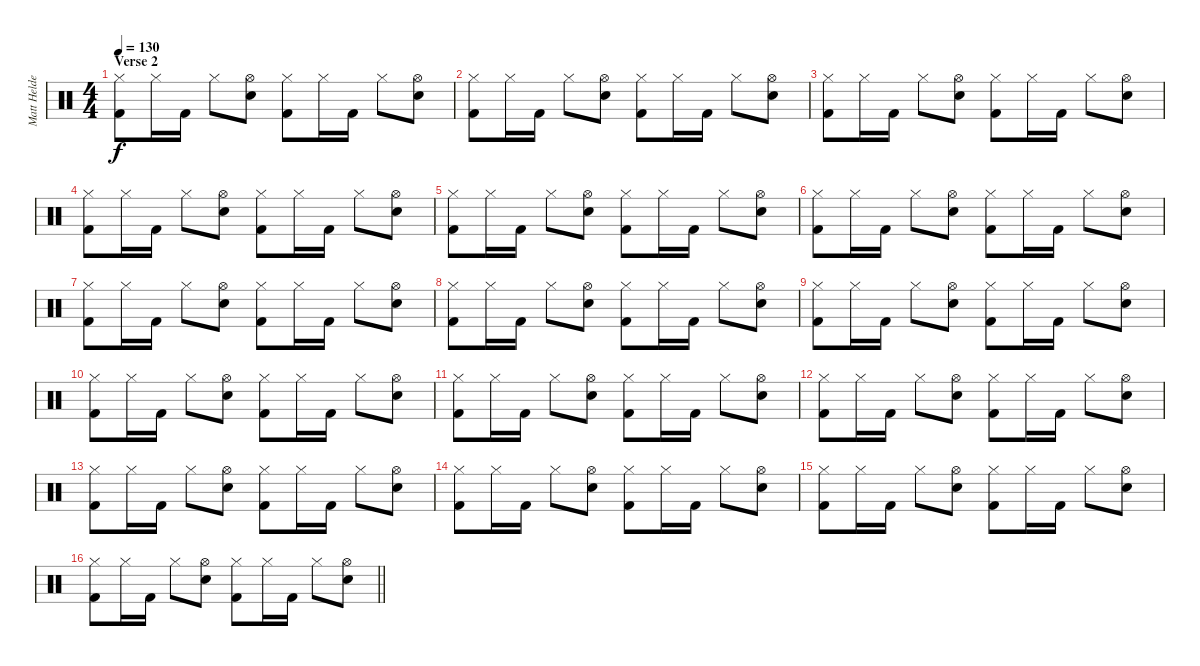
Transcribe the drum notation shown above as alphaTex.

\track ("Matt Helders" "Matt Helde") {instrument percussion}
\staff {score}
\articulation defaults
\ts (4 4)
\section ("" "Verse 2")
\tempo 130
\clef neutral
\ks c
("Hi-Hat (closed)" "Kick (hit) 2").8{dy f} "Hi-Hat (closed)".16 "Kick (hit) 2".16 "Hi-Hat (closed)".8 ("Hi-Hat (open)" "Snare (hit) 2").8 ("Hi-Hat (closed)" "Kick (hit) 2").8 "Hi-Hat (closed)".16 "Kick (hit) 2".16 "Hi-Hat (closed)".8 ("Hi-Hat (open)" "Snare (hit) 2").8 |
("Hi-Hat (closed)" "Kick (hit) 2").8 "Hi-Hat (closed)".16 "Kick (hit) 2".16 "Hi-Hat (closed)".8 ("Hi-Hat (open)" "Snare (hit) 2").8 ("Hi-Hat (closed)" "Kick (hit) 2").8 "Hi-Hat (closed)".16 "Kick (hit) 2".16 "Hi-Hat (closed)".8 ("Hi-Hat (open)" "Snare (hit) 2").8 |
("Hi-Hat (closed)" "Kick (hit) 2").8 "Hi-Hat (closed)".16 "Kick (hit) 2".16 "Hi-Hat (closed)".8 ("Hi-Hat (open)" "Snare (hit) 2").8 ("Hi-Hat (closed)" "Kick (hit) 2").8 "Hi-Hat (closed)".16 "Kick (hit) 2".16 "Hi-Hat (closed)".8 ("Hi-Hat (open)" "Snare (hit) 2").8 |
("Hi-Hat (closed)" "Kick (hit) 2").8 "Hi-Hat (closed)".16 "Kick (hit) 2".16 "Hi-Hat (closed)".8 ("Hi-Hat (open)" "Snare (hit) 2").8 ("Hi-Hat (closed)" "Kick (hit) 2").8 "Hi-Hat (closed)".16 "Kick (hit) 2".16 "Hi-Hat (closed)".8 ("Hi-Hat (open)" "Snare (hit) 2").8 |
("Hi-Hat (closed)" "Kick (hit) 2").8 "Hi-Hat (closed)".16 "Kick (hit) 2".16 "Hi-Hat (closed)".8 ("Hi-Hat (open)" "Snare (hit) 2").8 ("Hi-Hat (closed)" "Kick (hit) 2").8 "Hi-Hat (closed)".16 "Kick (hit) 2".16 "Hi-Hat (closed)".8 ("Hi-Hat (open)" "Snare (hit) 2").8 |
("Hi-Hat (closed)" "Kick (hit) 2").8 "Hi-Hat (closed)".16 "Kick (hit) 2".16 "Hi-Hat (closed)".8 ("Hi-Hat (open)" "Snare (hit) 2").8 ("Hi-Hat (closed)" "Kick (hit) 2").8 "Hi-Hat (closed)".16 "Kick (hit) 2".16 "Hi-Hat (closed)".8 ("Hi-Hat (open)" "Snare (hit) 2").8 |
("Hi-Hat (closed)" "Kick (hit) 2").8 "Hi-Hat (closed)".16 "Kick (hit) 2".16 "Hi-Hat (closed)".8 ("Hi-Hat (open)" "Snare (hit) 2").8 ("Hi-Hat (closed)" "Kick (hit) 2").8 "Hi-Hat (closed)".16 "Kick (hit) 2".16 "Hi-Hat (closed)".8 ("Hi-Hat (open)" "Snare (hit) 2").8 |
("Hi-Hat (closed)" "Kick (hit) 2").8 "Hi-Hat (closed)".16 "Kick (hit) 2".16 "Hi-Hat (closed)".8 ("Hi-Hat (open)" "Snare (hit) 2").8 ("Hi-Hat (closed)" "Kick (hit) 2").8 "Hi-Hat (closed)".16 "Kick (hit) 2".16 "Hi-Hat (closed)".8 ("Hi-Hat (open)" "Snare (hit) 2").8 |
("Hi-Hat (closed)" "Kick (hit) 2").8 "Hi-Hat (closed)".16 "Kick (hit) 2".16 "Hi-Hat (closed)".8 ("Hi-Hat (open)" "Snare (hit) 2").8 ("Hi-Hat (closed)" "Kick (hit) 2").8 "Hi-Hat (closed)".16 "Kick (hit) 2".16 "Hi-Hat (closed)".8 ("Hi-Hat (open)" "Snare (hit) 2").8 |
("Hi-Hat (closed)" "Kick (hit) 2").8 "Hi-Hat (closed)".16 "Kick (hit) 2".16 "Hi-Hat (closed)".8 ("Hi-Hat (open)" "Snare (hit) 2").8 ("Hi-Hat (closed)" "Kick (hit) 2").8 "Hi-Hat (closed)".16 "Kick (hit) 2".16 "Hi-Hat (closed)".8 ("Hi-Hat (open)" "Snare (hit) 2").8 |
("Hi-Hat (closed)" "Kick (hit) 2").8 "Hi-Hat (closed)".16 "Kick (hit) 2".16 "Hi-Hat (closed)".8 ("Hi-Hat (open)" "Snare (hit) 2").8 ("Hi-Hat (closed)" "Kick (hit) 2").8 "Hi-Hat (closed)".16 "Kick (hit) 2".16 "Hi-Hat (closed)".8 ("Hi-Hat (open)" "Snare (hit) 2").8 |
("Hi-Hat (closed)" "Kick (hit) 2").8 "Hi-Hat (closed)".16 "Kick (hit) 2".16 "Hi-Hat (closed)".8 ("Hi-Hat (open)" "Snare (hit) 2").8 ("Hi-Hat (closed)" "Kick (hit) 2").8 "Hi-Hat (closed)".16 "Kick (hit) 2".16 "Hi-Hat (closed)".8 ("Hi-Hat (open)" "Snare (hit) 2").8 |
("Hi-Hat (closed)" "Kick (hit) 2").8 "Hi-Hat (closed)".16 "Kick (hit) 2".16 "Hi-Hat (closed)".8 ("Hi-Hat (open)" "Snare (hit) 2").8 ("Hi-Hat (closed)" "Kick (hit) 2").8 "Hi-Hat (closed)".16 "Kick (hit) 2".16 "Hi-Hat (closed)".8 ("Hi-Hat (open)" "Snare (hit) 2").8 |
("Hi-Hat (closed)" "Kick (hit) 2").8 "Hi-Hat (closed)".16 "Kick (hit) 2".16 "Hi-Hat (closed)".8 ("Hi-Hat (open)" "Snare (hit) 2").8 ("Hi-Hat (closed)" "Kick (hit) 2").8 "Hi-Hat (closed)".16 "Kick (hit) 2".16 "Hi-Hat (closed)".8 ("Hi-Hat (open)" "Snare (hit) 2").8 |
("Hi-Hat (closed)" "Kick (hit) 2").8 "Hi-Hat (closed)".16 "Kick (hit) 2".16 "Hi-Hat (closed)".8 ("Hi-Hat (open)" "Snare (hit) 2").8 ("Hi-Hat (closed)" "Kick (hit) 2").8 "Hi-Hat (closed)".16 "Kick (hit) 2".16 "Hi-Hat (closed)".8 ("Hi-Hat (open)" "Snare (hit) 2").8 |
\barLineRight lightlight
("Hi-Hat (closed)" "Kick (hit) 2").8 "Hi-Hat (closed)".16 "Kick (hit) 2".16 "Hi-Hat (closed)".8 ("Hi-Hat (open)" "Snare (hit) 2").8 ("Hi-Hat (closed)" "Kick (hit) 2").8 "Hi-Hat (closed)".16 "Kick (hit) 2".16 "Hi-Hat (closed)".8 ("Hi-Hat (open)" "Snare (hit) 2").8
